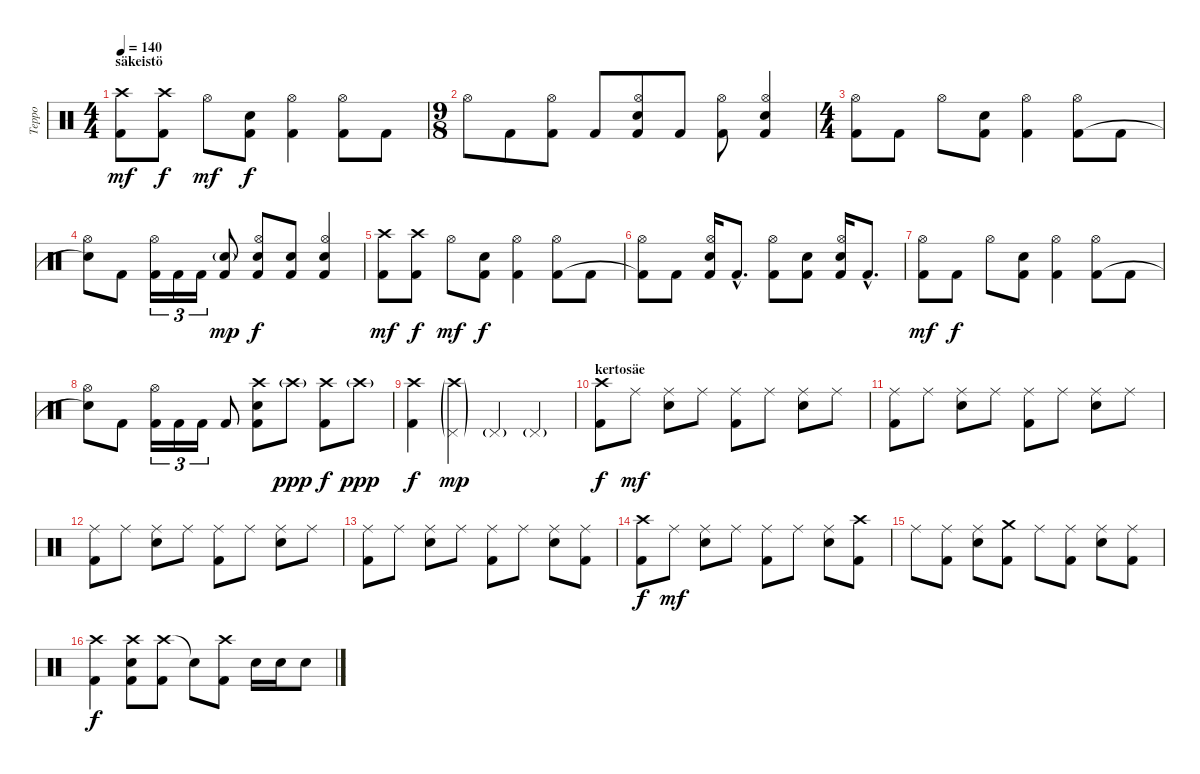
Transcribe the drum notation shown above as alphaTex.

\track ("Teppo" "Teppo") {instrument percussion}
\staff {score}
\articulation defaults
\ts (4 4)
\section ("" "säkeistö")
\tempo 140
\clef neutral
\ks c
("Crash high (hit)" "Kick (hit) 2").8{dy mf} ("Crash high (hit)" "Kick (hit) 2").8{dy f} "Hi-Hat (open)".8{dy mf} ("Electric Snare (hit)" "Kick (hit) 2").8{dy f} ("Hi-Hat (open)" "Kick (hit) 2").4 ("Hi-Hat (open)" "Kick (hit) 2").8 "Kick (hit) 2".8 |
\ts (9 8)
"Hi-Hat (open)".8 "Kick (hit) 2".8 ("Hi-Hat (open)" "Kick (hit) 2").8 "Kick (hit) 2".8 ("Hi-Hat (open)" "Electric Snare (hit)" "Kick (hit) 2").8 "Kick (hit) 2".8 ("Hi-Hat (open)" "Kick (hit) 2").8 ("Hi-Hat (open)" "Electric Snare (hit)" "Kick (hit) 2").4 |
\ts (4 4)
("Hi-Hat (open)" "Kick (hit) 2").8 "Kick (hit) 2".8 "Hi-Hat (open)".8 ("Electric Snare (hit)" "Kick (hit) 2").8 ("Hi-Hat (open)" "Kick (hit) 2").4 ("Hi-Hat (open)" "Kick (hit) 2").8 "Kick (hit) 2".8 |
("Hi-Hat (open)" "Snare (hit)"{t}).8 "Kick (hit) 2".8 ("Hi-Hat (open)" "Kick (hit) 2").16{tu (3 2)} "Kick (hit) 2".16{tu (3 2)} "Kick (hit) 2".16{tu (3 2)} ("Electric Snare (hit)"{g} "Kick (hit) 2").8{dy mp} ("Hi-Hat (open)" "Electric Snare (hit)" "Kick (hit) 2").8{dy f} ("Electric Snare (hit)" "Kick (hit) 2").8 ("Hi-Hat (open)" "Electric Snare (hit)" "Kick (hit) 2").4 |
("Crash high (hit)" "Kick (hit) 2").8{dy mf} ("Crash high (hit)" "Kick (hit) 2").8{dy f} "Hi-Hat (open)".8{dy mf} ("Electric Snare (hit)" "Kick (hit) 2").8{dy f} ("Hi-Hat (open)" "Kick (hit) 2").4 ("Hi-Hat (open)" "Kick (hit) 2").8 "Kick (hit) 2".8 |
("Hi-Hat (open)" "Kick (hit) 2"{t}).8 "Kick (hit) 2".8 ("Hi-Hat (open)" "Electric Snare (hit)" "Kick (hit) 2").16 "Kick (hit) 2"{hac}.8{d} ("Hi-Hat (open)" "Kick (hit) 2").8 ("Electric Snare (hit)" "Kick (hit) 2").8 ("Hi-Hat (open)" "Electric Snare (hit)" "Kick (hit) 2").16 "Kick (hit) 2"{hac}.8{d} |
("Hi-Hat (open)" "Kick (hit) 2").8{dy mf} "Kick (hit) 2".8{dy f} "Hi-Hat (open)".8 ("Electric Snare (hit)" "Kick (hit) 2").8 ("Hi-Hat (open)" "Kick (hit) 2").4 ("Hi-Hat (open)" "Kick (hit) 2").8 "Kick (hit) 2".8 |
("Hi-Hat (open)" "Snare (hit)"{t}).8 "Kick (hit) 2".8 ("Hi-Hat (open)" "Kick (hit) 2").16{tu (3 2)} "Kick (hit) 2".16{tu (3 2)} "Kick (hit) 2".16{tu (3 2)} "Kick (hit) 2".8 ("Crash high (hit)"{pm} "Electric Snare (hit)" "Kick (hit) 2").8 "Crash high (hit)"{g}.8{dy ppp} ("Crash high (hit)"{pm} "Kick (hit) 2").8{dy f} "Crash high (hit)"{g}.8{dy ppp} |
("Crash high (hit)"{pm} "Kick (hit) 2").4{dy f} ("Crash high (hit)"{g} "Pedal Hi-Hat (hit)"{g}).4{dy mp} "Pedal Hi-Hat (hit)"{g}.4 "Pedal Hi-Hat (hit)"{g}.4 |
\section ("" "kertosäe")
("Crash high (hit)" "Kick (hit) 2").8{dy f} "Ride (middle)".8{dy mf} ("Ride (middle)" "Electric Snare (hit)").8 "Ride (middle)".8 ("Ride (middle)" "Kick (hit) 2").8 "Ride (middle)".8 ("Ride (middle)" "Electric Snare (hit)").8 "Ride (middle)".8 |
("Ride (middle)" "Kick (hit) 2").8 "Ride (middle)".8 ("Ride (middle)" "Electric Snare (hit)").8 "Ride (middle)".8 ("Ride (middle)" "Kick (hit) 2").8 "Ride (middle)".8 ("Ride (middle)" "Electric Snare (hit)").8 "Ride (middle)".8 |
("Ride (middle)" "Kick (hit) 2").8 "Ride (middle)".8 ("Ride (middle)" "Electric Snare (hit)").8 "Ride (middle)".8 ("Ride (middle)" "Kick (hit) 2").8 "Ride (middle)".8 ("Ride (middle)" "Electric Snare (hit)").8 "Ride (middle)".8 |
("Ride (middle)" "Kick (hit) 2").8 "Ride (middle)".8 ("Ride (middle)" "Electric Snare (hit)").8 "Ride (middle)".8 ("Ride (middle)" "Kick (hit) 2").8 "Ride (middle)".8 ("Ride (middle)" "Electric Snare (hit)").8 ("Ride (middle)" "Kick (hit) 2").8 |
("Crash high (hit)" "Kick (hit) 2").8{dy f} "Ride (middle)".8{dy mf} ("Ride (middle)" "Electric Snare (hit)").8 "Ride (middle)".8 ("Ride (middle)" "Kick (hit) 2").8 "Ride (middle)".8 ("Ride (middle)" "Electric Snare (hit)").8 ("Crash high (hit)" "Kick (hit) 2").8 |
"Ride (middle)".8 ("Ride (middle)" "Kick (hit) 2").8 ("Ride (middle)" "Electric Snare (hit)").8 ("Crash medium (hit)" "Kick (hit) 2").8 "Ride (middle)".8 ("Ride (middle)" "Kick (hit) 2").8 ("Ride (middle)" "Electric Snare (hit)").8 ("Ride (middle)" "Kick (hit) 2").8 |
("Crash high (hit)" "Kick (hit) 2").4{dy f} ("Crash high (hit)" "Electric Snare (hit)" "Kick (hit) 2").8 ("Crash high (hit)" "Kick (hit) 2").8 "Snare (hit)"{t}.8 ("Crash high (hit)" "Kick (hit) 2").8 "Electric Snare (hit)".16 "Electric Snare (hit)".16 "Electric Snare (hit)".8
